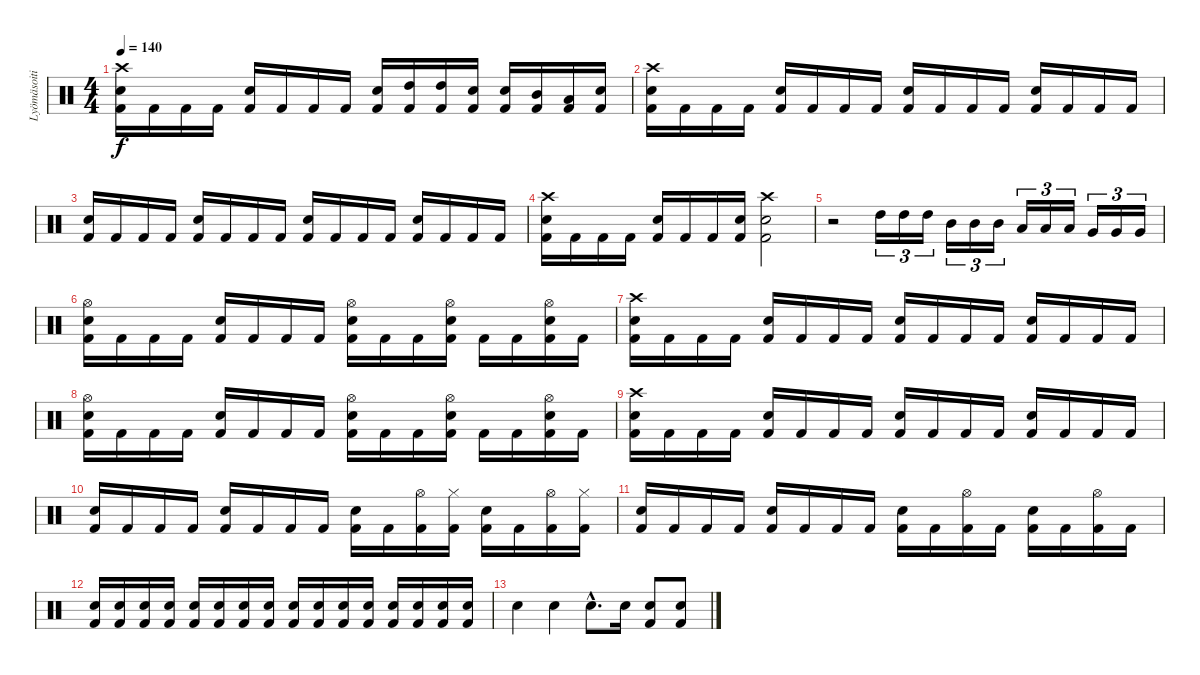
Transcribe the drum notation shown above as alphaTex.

\track ("Lyömäsoitin" "Lyömäsoiti") {instrument percussion}
\staff {score}
\articulation defaults
\ts (4 4)
\tempo 140
\clef neutral
\ks c
("Crash high (hit)" "Electric Snare (hit)" "Kick (hit) 2").16{dy f} "Kick (hit) 2".16 "Kick (hit) 2".16 "Kick (hit) 2".16 ("Electric Snare (hit)" "Kick (hit) 2").16 "Kick (hit) 2".16 "Kick (hit) 2".16 "Kick (hit) 2".16 ("Electric Snare (hit)" "Kick (hit) 2").16 ("High Tom (hit)" "Kick (hit) 2").16 ("High Tom (hit)" "Kick (hit) 2").16 ("Electric Snare (hit)" "Kick (hit) 2").16 ("Electric Snare (hit)" "Kick (hit) 2").16 ("Mid Tom (hit)" "Kick (hit) 2").16 ("Low Tom (hit)" "Kick (hit) 2").16 ("Electric Snare (hit)" "Kick (hit) 2").16 |
("Crash high (hit)" "Electric Snare (hit)" "Kick (hit) 2").16 "Kick (hit) 2".16 "Kick (hit) 2".16 "Kick (hit) 2".16 ("Electric Snare (hit)" "Kick (hit) 2").16 "Kick (hit) 2".16 "Kick (hit) 2".16 "Kick (hit) 2".16 ("Electric Snare (hit)" "Kick (hit) 2").16 "Kick (hit) 2".16 "Kick (hit) 2".16 "Kick (hit) 2".16 ("Electric Snare (hit)" "Kick (hit) 2").16 "Kick (hit) 2".16 "Kick (hit) 2".16 "Kick (hit) 2".16 |
("Electric Snare (hit)" "Kick (hit) 2").16 "Kick (hit) 2".16 "Kick (hit) 2".16 "Kick (hit) 2".16 ("Electric Snare (hit)" "Kick (hit) 2").16 "Kick (hit) 2".16 "Kick (hit) 2".16 "Kick (hit) 2".16 ("Electric Snare (hit)" "Kick (hit) 2").16 "Kick (hit) 2".16 "Kick (hit) 2".16 "Kick (hit) 2".16 ("Electric Snare (hit)" "Kick (hit) 2").16 "Kick (hit) 2".16 "Kick (hit) 2".16 "Kick (hit) 2".16 |
("Crash high (hit)" "Electric Snare (hit)" "Kick (hit) 2").16 "Kick (hit) 2".16 "Kick (hit) 2".16 "Kick (hit) 2".16 ("Electric Snare (hit)" "Kick (hit) 2").16 "Kick (hit) 2".16 "Kick (hit) 2".16 ("Electric Snare (hit)" "Kick (hit) 2").16 ("Crash high (hit)" "Electric Snare (hit)" "Kick (hit) 2").2 |
r.2 "High Tom (hit)".16{tu (3 2)} "High Tom (hit)".16{tu (3 2)} "High Tom (hit)".16{tu (3 2)} "Mid Tom (hit)".16{tu (3 2)} "Mid Tom (hit)".16{tu (3 2)} "Mid Tom (hit)".16{tu (3 2)} "Low Tom (hit)".16{tu (3 2)} "Low Tom (hit)".16{tu (3 2)} "Low Tom (hit)".16{tu (3 2)} "Very Low Tom (hit)".16{tu (3 2)} "Very Low Tom (hit)".16{tu (3 2)} "Very Low Tom (hit)".16{tu (3 2)} |
("Hi-Hat (open)" "Electric Snare (hit)" "Kick (hit) 2").16 "Kick (hit) 2".16 "Kick (hit) 2".16 "Kick (hit) 2".16 ("Electric Snare (hit)" "Kick (hit) 2").16 "Kick (hit) 2".16 "Kick (hit) 2".16 "Kick (hit) 2".16 ("Hi-Hat (open)" "Electric Snare (hit)" "Kick (hit) 2").16 "Kick (hit) 2".16 "Kick (hit) 2".16 ("Hi-Hat (open)" "Electric Snare (hit)" "Kick (hit) 2").16 "Kick (hit) 2".16 "Kick (hit) 2".16 ("Hi-Hat (open)" "Electric Snare (hit)" "Kick (hit) 2").16 "Kick (hit) 2".16 |
("Crash high (hit)" "Electric Snare (hit)" "Kick (hit) 2").16 "Kick (hit) 2".16 "Kick (hit) 2".16 "Kick (hit) 2".16 ("Electric Snare (hit)" "Kick (hit) 2").16 "Kick (hit) 2".16 "Kick (hit) 2".16 "Kick (hit) 2".16 ("Electric Snare (hit)" "Kick (hit) 2").16 "Kick (hit) 2".16 "Kick (hit) 2".16 "Kick (hit) 2".16 ("Electric Snare (hit)" "Kick (hit) 2").16 "Kick (hit) 2".16 "Kick (hit) 2".16 "Kick (hit) 2".16 |
("Hi-Hat (open)" "Electric Snare (hit)" "Kick (hit) 2").16 "Kick (hit) 2".16 "Kick (hit) 2".16 "Kick (hit) 2".16 ("Electric Snare (hit)" "Kick (hit) 2").16 "Kick (hit) 2".16 "Kick (hit) 2".16 "Kick (hit) 2".16 ("Hi-Hat (open)" "Electric Snare (hit)" "Kick (hit) 2").16 "Kick (hit) 2".16 "Kick (hit) 2".16 ("Hi-Hat (open)" "Electric Snare (hit)" "Kick (hit) 2").16 "Kick (hit) 2".16 "Kick (hit) 2".16 ("Hi-Hat (open)" "Electric Snare (hit)" "Kick (hit) 2").16 "Kick (hit) 2".16 |
("Crash high (hit)" "Electric Snare (hit)" "Kick (hit) 2").16 "Kick (hit) 2".16 "Kick (hit) 2".16 "Kick (hit) 2".16 ("Electric Snare (hit)" "Kick (hit) 2").16 "Kick (hit) 2".16 "Kick (hit) 2".16 "Kick (hit) 2".16 ("Electric Snare (hit)" "Kick (hit) 2").16 "Kick (hit) 2".16 "Kick (hit) 2".16 "Kick (hit) 2".16 ("Electric Snare (hit)" "Kick (hit) 2").16 "Kick (hit) 2".16 "Kick (hit) 2".16 "Kick (hit) 2".16 |
("Electric Snare (hit)" "Kick (hit) 2").16 "Kick (hit) 2".16 "Kick (hit) 2".16 "Kick (hit) 2".16 ("Electric Snare (hit)" "Kick (hit) 2").16 "Kick (hit) 2".16 "Kick (hit) 2".16 "Kick (hit) 2".16 ("Electric Snare (hit)" "Kick (hit) 2").16 "Kick (hit) 2".16 ("Hi-Hat (open)" "Kick (hit) 2").16 ("Hi-Hat (closed)" "Kick (hit) 2").16 ("Electric Snare (hit)" "Kick (hit) 2").16 "Kick (hit) 2".16 ("Hi-Hat (open)" "Kick (hit) 2").16 ("Hi-Hat (closed)" "Kick (hit) 2").16 |
("Electric Snare (hit)" "Kick (hit) 2").16 "Kick (hit) 2".16 "Kick (hit) 2".16 "Kick (hit) 2".16 ("Electric Snare (hit)" "Kick (hit) 2").16 "Kick (hit) 2".16 "Kick (hit) 2".16 "Kick (hit) 2".16 ("Electric Snare (hit)" "Kick (hit) 2").16 "Kick (hit) 2".16 ("Hi-Hat (open)" "Kick (hit) 2").16 "Kick (hit) 2".16 ("Electric Snare (hit)" "Kick (hit) 2").16 "Kick (hit) 2".16 ("Hi-Hat (open)" "Kick (hit) 2").16 "Kick (hit) 2".16 |
("Electric Snare (hit)" "Kick (hit) 2").16 ("Electric Snare (hit)" "Kick (hit) 2").16 ("Electric Snare (hit)" "Kick (hit) 2").16 ("Electric Snare (hit)" "Kick (hit) 2").16 ("Electric Snare (hit)" "Kick (hit) 2").16 ("Electric Snare (hit)" "Kick (hit) 2").16 ("Electric Snare (hit)" "Kick (hit) 2").16 ("Electric Snare (hit)" "Kick (hit) 2").16 ("Electric Snare (hit)" "Kick (hit) 2").16 ("Electric Snare (hit)" "Kick (hit) 2").16 ("Electric Snare (hit)" "Kick (hit) 2").16 ("Electric Snare (hit)" "Kick (hit) 2").16 ("Electric Snare (hit)" "Kick (hit) 2").16 ("Electric Snare (hit)" "Kick (hit) 2").16 ("Electric Snare (hit)" "Kick (hit) 2").16 ("Electric Snare (hit)" "Kick (hit) 2").16 |
"Electric Snare (hit)".4 "Electric Snare (hit)".4 "Electric Snare (hit)"{hac}.8{d} "Electric Snare (hit)".16 ("Electric Snare (hit)" "Kick (hit) 2").8 ("Electric Snare (hit)" "Kick (hit) 2").8
